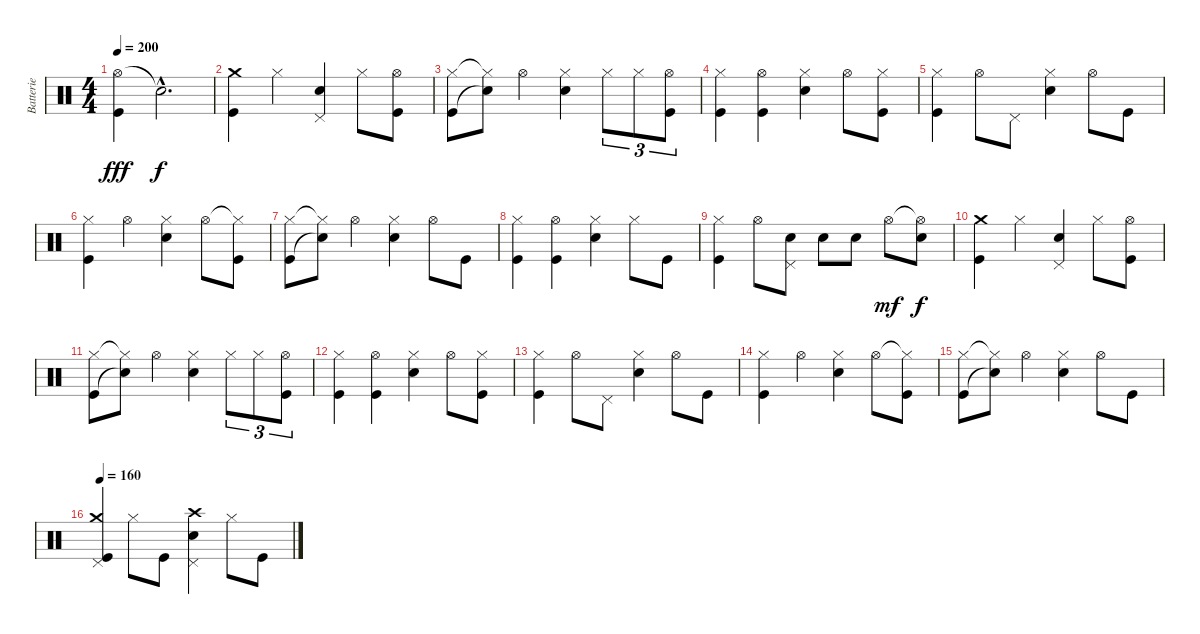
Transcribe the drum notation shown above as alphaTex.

\track ("Batterie" "Batterie") {instrument percussion}
\staff {score}
\articulation defaults
\ts (4 4)
\tempo 200
\clef neutral
\ks c
("Hi-Hat (open)" "Kick (hit)").4{dy fff} "Snare (hit)"{hac t}.2{d dy f} |
("Crash medium (hit)" "Kick (hit)").4 "Hi-Hat (closed)".4 ("Pedal Hi-Hat (hit)" "Snare (hit) 2").4 "Hi-Hat (closed)".8 ("Hi-Hat (open)" "Kick (hit)").8 |
("Hi-Hat (closed)" "Kick (hit)").8 ("Hi-Hat (closed)"{t} "Snare (hit)"{t}).8 "Hi-Hat (open)".4 ("Hi-Hat (closed)" "Snare (hit) 2").4 "Hi-Hat (closed)".8{tu (3 2)} "Hi-Hat (closed)".8{tu (3 2)} ("Hi-Hat (open)" "Kick (hit)").8{tu (3 2)} |
("Hi-Hat (closed)" "Kick (hit)").4 ("Hi-Hat (open)" "Kick (hit)").4 ("Hi-Hat (closed)" "Snare (hit) 2").4 "Hi-Hat (open)".8 ("Hi-Hat (closed)" "Kick (hit)").8 |
("Hi-Hat (closed)" "Kick (hit)").4 "Hi-Hat (open)".8 "Pedal Hi-Hat (hit)".8 ("Hi-Hat (closed)" "Snare (hit) 2").4 "Hi-Hat (open)".8 "Kick (hit)".8 |
("Hi-Hat (closed)" "Kick (hit)").4 "Hi-Hat (open)".4 ("Hi-Hat (closed)" "Snare (hit) 2").4 "Hi-Hat (open)".8 ("Hi-Hat (closed)"{t} "Kick (hit)").8 |
("Hi-Hat (closed)" "Kick (hit)").8 ("Hi-Hat (closed)"{t} "Snare (hit)"{t}).8 "Hi-Hat (open)".4 ("Hi-Hat (closed)" "Snare (hit) 2").4 "Hi-Hat (open)".8 "Kick (hit)".8 |
("Hi-Hat (closed)" "Kick (hit)").4 ("Hi-Hat (open)" "Kick (hit)").4 ("Hi-Hat (closed)" "Snare (hit) 2").4 "Hi-Hat (closed)".8 "Kick (hit)".8 |
("Hi-Hat (closed)" "Kick (hit)").4 "Hi-Hat (open)".8 ("Pedal Hi-Hat (hit)" "Snare (hit) 2").8 "Snare (hit) 2".8 "Snare (hit) 2".8 "Hi-Hat (open)".8{dy mf} ("Hi-Hat (open)"{t} "Snare (hit) 2").8{dy f} |
("Crash medium (hit)" "Kick (hit)").4 "Hi-Hat (closed)".4 ("Pedal Hi-Hat (hit)" "Snare (hit) 2").4 "Hi-Hat (closed)".8 ("Hi-Hat (open)" "Kick (hit)").8 |
("Hi-Hat (closed)" "Kick (hit)").8 ("Hi-Hat (closed)"{t} "Snare (hit)"{t}).8 "Hi-Hat (open)".4 ("Hi-Hat (closed)" "Snare (hit) 2").4 "Hi-Hat (closed)".8{tu (3 2)} "Hi-Hat (closed)".8{tu (3 2)} ("Hi-Hat (open)" "Kick (hit)").8{tu (3 2)} |
("Hi-Hat (closed)" "Kick (hit)").4 ("Hi-Hat (open)" "Kick (hit)").4 ("Hi-Hat (closed)" "Snare (hit) 2").4 "Hi-Hat (open)".8 ("Hi-Hat (closed)" "Kick (hit)").8 |
("Hi-Hat (closed)" "Kick (hit)").4 "Hi-Hat (open)".8 "Pedal Hi-Hat (hit)".8 ("Hi-Hat (closed)" "Snare (hit) 2").4 "Hi-Hat (open)".8 "Kick (hit)".8 |
("Hi-Hat (closed)" "Kick (hit)").4 "Hi-Hat (open)".4 ("Hi-Hat (closed)" "Snare (hit) 2").4 "Hi-Hat (open)".8 ("Hi-Hat (closed)"{t} "Kick (hit)").8 |
("Hi-Hat (closed)" "Kick (hit)").8 ("Hi-Hat (closed)"{t} "Snare (hit)"{t}).8 "Hi-Hat (open)".4 ("Hi-Hat (closed)" "Snare (hit) 2").4 "Hi-Hat (open)".8 "Kick (hit)".8 |
\tempo 160
("Crash medium (hit)" "Pedal Hi-Hat (hit)" "Kick (hit)").4 "Hi-Hat (closed)".8 "Kick (hit)".8 ("Crash high (hit)" "Pedal Hi-Hat (hit)" "Snare (hit) 2").4 "Hi-Hat (closed)".8 "Kick (hit)".8
